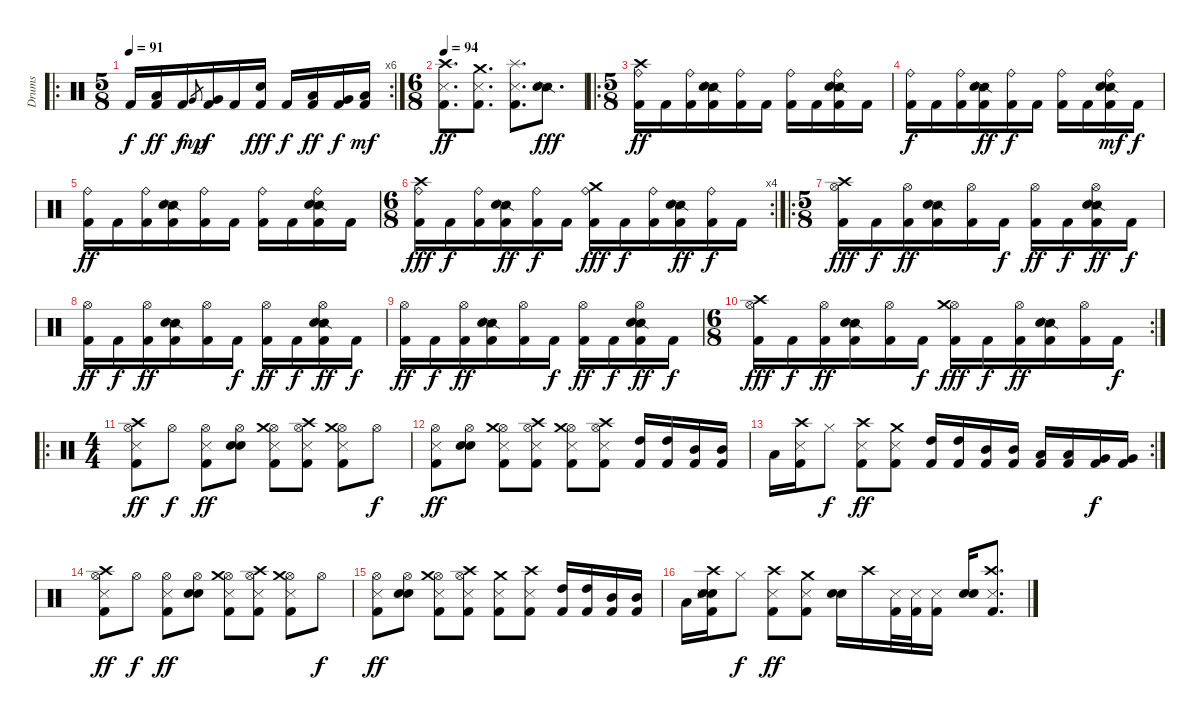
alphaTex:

\track ("Drums" "Drums") {instrument percussion}
\staff {score}
\articulation defaults
\ro
\rc 6
\ts (5 8)
\tempo 91
\clef neutral
\ks c "Kick (hit) 2".16{dy f}
("Low Tom (hit)" "Kick (hit) 2").16{dy ff} "Kick (hit) 2".16{dy f} "Very Low Tom (hit)".8{gr dy mp} ("Very Low Tom (hit)" "Kick (hit) 2").16{dy f} "Kick (hit) 2".16 ("Electric Snare (hit)" "Kick (hit) 2").16{dy fff} "Kick (hit) 2".16{dy f} ("Low Tom (hit)" "Kick (hit) 2").16{dy ff} ("Very Low Tom (hit)" "Kick (hit) 2").16{dy f} ("Low Floor Tom (hit)" "Kick (hit) 2").16{dy mf} |
\ts (6 8)
\tempo 94
("Crash high (hit)" "Metronome (hit)" "Kick (hit) 2").8{d dy ff} ("Crash medium (hit)" "Metronome (hit)" "Kick (hit) 2").8{d} ("Splash (hit)" "Metronome (hit)" "Kick (hit) 2").8{d} ("Snare (side stick) 2" "Electric Snare (hit)").8{d dy fff} |
\ro
\ts (5 8)
("Ride (bell)" "Crash high (hit)" "Kick (hit) 2").16{dy ff} "Kick (hit) 2".16 ("Ride (bell)" "Kick (hit) 2").16 ("Snare (side stick) 2" "Electric Snare (hit)" "Kick (hit) 2").16 ("Ride (bell)" "Kick (hit) 2").16 "Kick (hit) 2".16 ("Ride (bell)" "Kick (hit) 2").16 "Kick (hit) 2".16 ("Ride (bell)" "Snare (side stick) 2" "Electric Snare (hit)" "Kick (hit) 2").16 "Kick (hit) 2".16 |
("Ride (bell)" "Kick (hit) 2").16{dy f} "Kick (hit) 2".16 ("Ride (bell)" "Kick (hit) 2").16 ("Snare (side stick) 2" "Electric Snare (hit)" "Kick (hit) 2").16{dy ff} ("Ride (bell)" "Kick (hit) 2").16{dy f} "Kick (hit) 2".16 ("Ride (bell)" "Kick (hit) 2").16 "Kick (hit) 2".16 ("Ride (bell)" "Snare (side stick) 2" "Electric Snare (hit)" "Kick (hit) 2").16{dy mf} "Kick (hit) 2".16{dy f} |
("Ride (bell)" "Kick (hit) 2").16{dy ff} "Kick (hit) 2".16 ("Ride (bell)" "Kick (hit) 2").16 ("Snare (side stick) 2" "Electric Snare (hit)" "Kick (hit) 2").16 ("Ride (bell)" "Kick (hit) 2").16 "Kick (hit) 2".16 ("Ride (bell)" "Kick (hit) 2").16 "Kick (hit) 2".16 ("Ride (bell)" "Snare (side stick) 2" "Electric Snare (hit)" "Kick (hit) 2").16 "Kick (hit) 2".16 |
\rc 4
\ts (6 8)
("Ride (bell)" "Crash high (hit)" "Kick (hit) 2").16{dy fff} "Kick (hit) 2".16{dy f} ("Ride (bell)" "Kick (hit) 2").16 ("Snare (side stick) 2" "Electric Snare (hit)" "Kick (hit) 2").16{dy ff} ("Ride (bell)" "Kick (hit) 2").16{dy f} "Kick (hit) 2".16 ("Ride (bell)" "Crash medium (hit)" "Kick (hit) 2").16{dy fff} "Kick (hit) 2".16{dy f} ("Ride (bell)" "Kick (hit) 2").16 ("Snare (side stick) 2" "Electric Snare (hit)" "Kick (hit) 2").16{dy ff} ("Ride (bell)" "Kick (hit) 2").16{dy f} "Kick (hit) 2".16 |
\ro
\ts (5 8)
("Hi-Hat (open)" "Crash high (hit)" "Kick (hit) 2").16{dy fff} "Kick (hit) 2".16{dy f} ("Hi-Hat (open)" "Kick (hit) 2").16{dy ff} ("Snare (side stick) 2" "Electric Snare (hit)" "Kick (hit) 2").16 ("Hi-Hat (open)" "Kick (hit) 2").16 "Kick (hit) 2".16{dy f} ("Hi-Hat (open)" "Kick (hit) 2").16{dy ff} "Kick (hit) 2".16{dy f} ("Hi-Hat (open)" "Snare (side stick) 2" "Electric Snare (hit)" "Kick (hit) 2").16{dy ff} "Kick (hit) 2".16{dy f} |
("Hi-Hat (open)" "Kick (hit) 2").16{dy ff} "Kick (hit) 2".16{dy f} ("Hi-Hat (open)" "Kick (hit) 2").16{dy ff} ("Snare (side stick) 2" "Electric Snare (hit)" "Kick (hit) 2").16 ("Hi-Hat (open)" "Kick (hit) 2").16 "Kick (hit) 2".16{dy f} ("Hi-Hat (open)" "Kick (hit) 2").16{dy ff} "Kick (hit) 2".16{dy f} ("Hi-Hat (open)" "Snare (side stick) 2" "Electric Snare (hit)" "Kick (hit) 2").16{dy ff} "Kick (hit) 2".16{dy f} |
("Hi-Hat (open)" "Kick (hit) 2").16{dy ff} "Kick (hit) 2".16{dy f} ("Hi-Hat (open)" "Kick (hit) 2").16{dy ff} ("Snare (side stick) 2" "Electric Snare (hit)" "Kick (hit) 2").16 ("Hi-Hat (open)" "Kick (hit) 2").16 "Kick (hit) 2".16{dy f} ("Hi-Hat (open)" "Kick (hit) 2").16{dy ff} "Kick (hit) 2".16{dy f} ("Hi-Hat (open)" "Snare (side stick) 2" "Electric Snare (hit)" "Kick (hit) 2").16{dy ff} "Kick (hit) 2".16{dy f} |
\rc 2
\ts (6 8)
("Hi-Hat (open)" "Crash high (hit)" "Kick (hit) 2").16{dy fff} "Kick (hit) 2".16{dy f} ("Hi-Hat (open)" "Kick (hit) 2").16{dy ff} ("Snare (side stick) 2" "Electric Snare (hit)" "Kick (hit) 2").16 ("Hi-Hat (open)" "Kick (hit) 2").16 "Kick (hit) 2".16{dy f} ("Hi-Hat (open)" "Crash medium (hit)" "Kick (hit) 2").16{dy fff} "Kick (hit) 2".16{dy f} ("Hi-Hat (open)" "Kick (hit) 2").16{dy ff} ("Snare (side stick) 2" "Electric Snare (hit)" "Kick (hit) 2").16 ("Hi-Hat (open)" "Kick (hit) 2").16 "Kick (hit) 2".16{dy f} |
\ro
\ts (4 4)
("Hi-Hat (open)" "Crash high (hit)" "Metronome (hit)" "Kick (hit) 2").8{dy ff} "Hi-Hat (open)".8{dy f} ("Hi-Hat (open)" "Metronome (hit)" "Kick (hit) 2").8{dy ff} ("Hi-Hat (open)" "Electric Snare (hit)" "Metronome (bell)").8 ("Hi-Hat (open)" "Crash medium (hit)" "Metronome (hit)" "Kick (hit) 2").8 ("Hi-Hat (open)" "Crash high (hit)" "Metronome (hit)" "Kick (hit) 2").8 ("Hi-Hat (open)" "Crash medium (hit)" "Metronome (hit)" "Kick (hit) 2").8 "Hi-Hat (open)".8{dy f} |
("Hi-Hat (open)" "Metronome (hit)" "Kick (hit) 2").8{dy ff} ("Hi-Hat (open)" "Electric Snare (hit)" "Metronome (bell)").8 ("Hi-Hat (open)" "Crash medium (hit)" "Metronome (hit)" "Kick (hit) 2").8 ("Hi-Hat (open)" "Crash high (hit)" "Metronome (hit)" "Kick (hit) 2").8 ("Hi-Hat (open)" "Crash medium (hit)" "Metronome (hit)" "Kick (hit) 2").8 ("Hi-Hat (open)" "Crash high (hit)" "Metronome (hit)" "Kick (hit) 2").8 ("High Tom (hit)" "Kick (hit) 2").16 ("High Tom (hit)" "Kick (hit) 2").16 ("Mid Tom (hit)" "Kick (hit) 2").16 ("Mid Tom (hit)" "Kick (hit) 2").16 |
\rc 2 "Low Tom (hit)".16
("Crash high (hit)" "Metronome (hit)" "Kick (hit) 2").16 "Hi-Hat (closed)".8{dy f} ("Crash high (hit)" "Metronome (hit)" "Kick (hit) 2").8{dy ff} ("Crash medium (hit)" "Metronome (hit)" "Kick (hit) 2").8 ("High Tom (hit)" "Kick (hit) 2").16 ("High Tom (hit)" "Kick (hit) 2").16 ("Mid Tom (hit)" "Kick (hit) 2").16 ("Mid Tom (hit)" "Kick (hit) 2").16 ("Low Tom (hit)" "Kick (hit) 2").16 ("Low Tom (hit)" "Kick (hit) 2").16 ("Very Low Tom (hit)" "Kick (hit) 2").16{dy f} ("Very Low Tom (hit)" "Kick (hit) 2").16 |
("Hi-Hat (open)" "Crash high (hit)" "Metronome (hit)" "Kick (hit) 2").8{dy ff} "Hi-Hat (open)".8{dy f} ("Hi-Hat (open)" "Metronome (hit)" "Kick (hit) 2").8{dy ff} ("Hi-Hat (open)" "Electric Snare (hit)" "Metronome (bell)").8 ("Hi-Hat (open)" "Crash medium (hit)" "Metronome (hit)" "Kick (hit) 2").8 ("Hi-Hat (open)" "Crash high (hit)" "Metronome (hit)" "Kick (hit) 2").8 ("Hi-Hat (open)" "Crash medium (hit)" "Metronome (hit)" "Kick (hit) 2").8 "Hi-Hat (open)".8{dy f} |
("Hi-Hat (open)" "Metronome (hit)" "Kick (hit) 2").8{dy ff} ("Hi-Hat (open)" "Electric Snare (hit)" "Metronome (bell)").8 ("Hi-Hat (open)" "Crash medium (hit)" "Metronome (hit)" "Kick (hit) 2").8 ("Hi-Hat (open)" "Crash high (hit)" "Metronome (hit)" "Kick (hit) 2").8 ("Crash medium (hit)" "Metronome (hit)" "Kick (hit) 2").8 ("Crash high (hit)" "Metronome (hit)" "Kick (hit) 2").8 ("High Tom (hit)" "Kick (hit) 2").16 ("High Tom (hit)" "Kick (hit) 2").16 ("Mid Tom (hit)" "Kick (hit) 2").16 ("Mid Tom (hit)" "Kick (hit) 2").16 |
"Low Tom (hit)".16 ("Crash high (hit)" "Electric Snare (hit)" "Metronome (bell)" "Metronome (hit)" "Kick (hit) 2").16 "Hi-Hat (closed)".8{dy f} ("Crash high (hit)" "Metronome (hit)" "Kick (hit) 2").8{dy ff} ("Crash medium (hit)" "Metronome (hit)" "Kick (hit) 2").8 ("Electric Snare (hit)" "Metronome (bell)").16 "Crash high (hit)".16 ("Metronome (hit)" "Kick (hit) 2").32 ("Metronome (hit)" "Kick (hit) 2").32 ("Metronome (hit)" "Kick (hit) 2").16 ("Electric Snare (hit)" "Metronome (bell)").16 ("Crash high (hit)" "Metronome (hit)" "Kick (hit) 2").8{d}
